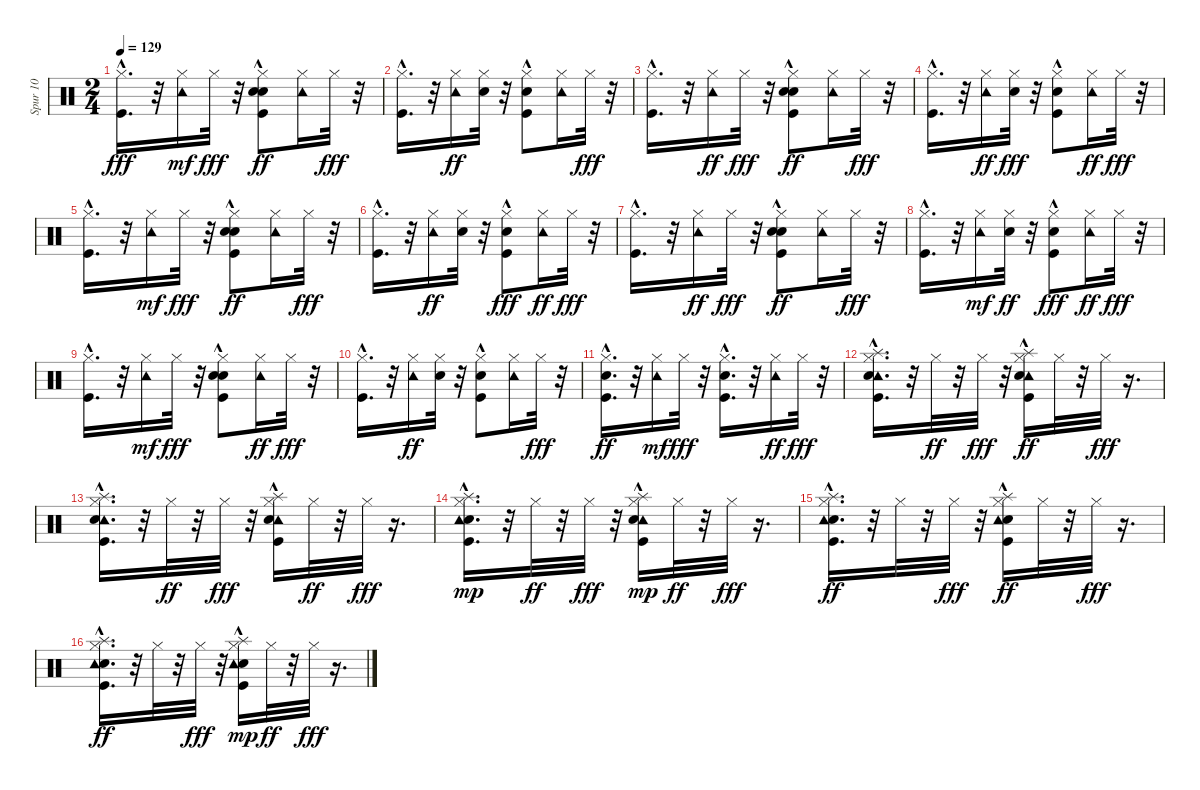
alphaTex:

\track ("Spur 10" "Spur 10") {instrument percussion}
\staff {score}
\articulation defaults
\ts (2 4)
\tempo 129
\clef neutral
\ks c
("Kick (hit)"{hac} "Hi-Hat (closed)").16{d dy fff} r.32 ("Hi-Hat (closed)" "Tambourine (hit)").16{dy mf} "Hi-Hat (closed)".32{dy fff} r.32 ("Hi-Hat (closed)" "Kick (hit)"{hac} "Hand Clap (hit)" "Snare (hit) 2").8{dy ff} ("Tambourine (hit)" "Hi-Hat (closed)").16 "Hi-Hat (closed)".32{dy fff} r.32 |
("Kick (hit)"{hac} "Hi-Hat (closed)").16{d} r.32 ("Tambourine (hit)" "Hi-Hat (closed)").16{dy ff} ("Hi-Hat (closed)" "Snare (hit) 2").32 r.32 ("Kick (hit)"{hac} "Hi-Hat (closed)" "Hand Clap (hit)").8 ("Tambourine (hit)" "Hi-Hat (closed)").16 "Hi-Hat (closed)".32{dy fff} r.32 |
("Kick (hit)"{hac} "Hi-Hat (closed)").16{d} r.32 ("Tambourine (hit)" "Hi-Hat (closed)").16{dy ff} "Hi-Hat (closed)".32{dy fff} r.32 ("Hi-Hat (closed)" "Snare (hit) 2" "Kick (hit)"{hac} "Hand Clap (hit)"{hac}).8{dy ff} ("Tambourine (hit)" "Hi-Hat (closed)").16 "Hi-Hat (closed)".32{dy fff} r.32 |
("Kick (hit)"{hac} "Hi-Hat (closed)").16{d} r.32 ("Tambourine (hit)" "Hi-Hat (closed)").16{dy ff} ("Snare (hit) 2" "Hi-Hat (closed)").32{dy fff} r.32 ("Hi-Hat (closed)" "Hand Clap (hit)" "Kick (hit)"{hac}).8 ("Hi-Hat (closed)" "Tambourine (hit)").16{dy ff} "Hi-Hat (closed)".32{dy fff} r.32 |
("Kick (hit)"{hac} "Hi-Hat (closed)").16{d} r.32 ("Hi-Hat (closed)" "Tambourine (hit)").16{dy mf} "Hi-Hat (closed)".32{dy fff} r.32 ("Kick (hit)"{hac} "Snare (hit) 2" "Hand Clap (hit)"{hac} "Hi-Hat (closed)").8{dy ff} ("Hi-Hat (closed)" "Tambourine (hit)").16 "Hi-Hat (closed)".32{dy fff} r.32 |
("Hi-Hat (closed)" "Kick (hit)"{hac}).16{d} r.32 ("Tambourine (hit)" "Hi-Hat (closed)").16{dy ff} ("Hi-Hat (closed)" "Snare (hit) 2").32 r.32 ("Hand Clap (hit)"{hac} "Kick (hit)"{hac} "Hi-Hat (closed)").8{dy fff} ("Hi-Hat (closed)" "Tambourine (hit)").16{dy ff} "Hi-Hat (closed)".32{dy fff} r.32 |
("Hi-Hat (closed)" "Kick (hit)"{hac}).16{d} r.32 ("Tambourine (hit)" "Hi-Hat (closed)").16{dy ff} "Hi-Hat (closed)".32{dy fff} r.32 ("Hi-Hat (closed)" "Hand Clap (hit)"{hac} "Kick (hit)"{hac} "Snare (hit) 2").8{dy ff} ("Tambourine (hit)" "Hi-Hat (closed)").16 "Hi-Hat (closed)".32{dy fff} r.32 |
("Kick (hit)"{hac} "Hi-Hat (closed)").16{d} r.32 ("Hi-Hat (closed)" "Tambourine (hit)").16{dy mf} ("Hi-Hat (closed)" "Snare (hit) 2").32{dy ff} r.32 ("Hand Clap (hit)"{hac} "Kick (hit)"{hac} "Hi-Hat (closed)").8{dy fff} ("Tambourine (hit)" "Hi-Hat (closed)").16{dy ff} "Hi-Hat (closed)".32{dy fff} r.32 |
("Hi-Hat (closed)" "Kick (hit)"{hac}).16{d} r.32 ("Hi-Hat (closed)" "Tambourine (hit)").16{dy mf} "Hi-Hat (closed)".32{dy fff} r.32 ("Hand Clap (hit)" "Snare (hit) 2" "Hi-Hat (closed)" "Kick (hit)"{hac}).8 ("Hi-Hat (closed)" "Tambourine (hit)").16{dy ff} "Hi-Hat (closed)".32{dy fff} r.32 |
("Hi-Hat (closed)" "Kick (hit)"{hac}).16{d} r.32 ("Tambourine (hit)" "Hi-Hat (closed)").16{dy ff} ("Hi-Hat (closed)" "Snare (hit) 2").32 r.32 ("Kick (hit)"{hac} "Hand Clap (hit)" "Hi-Hat (closed)").8 ("Tambourine (hit)" "Hi-Hat (closed)").16 "Hi-Hat (closed)".32{dy fff} r.32 |
("Kick (hit)"{hac} "Hi-Hat (closed)" "Hand Clap (hit)").16{d dy ff} r.32 ("Hi-Hat (closed)" "Tambourine (hit)").16{dy mf} "Hi-Hat (closed)".32{dy fff} r.32 ("Hi-Hat (closed)" "Snare (hit) 2" "Kick (hit)"{hac}).16{d} r.32 ("Tambourine (hit)" "Hi-Hat (closed)").16{dy ff} "Hi-Hat (closed)".32{dy fff} r.32 |
("Hi-Hat (closed)" "Splash (hit)" "Tambourine (hit)"{hac} "Snare (hit) 2"{hac} "Kick (hit)"{hac}).16{d} r.32 "Hi-Hat (closed)".32{dy ff} r.32 "Hi-Hat (closed)".32{dy fff} r.32 ("Tambourine (hit)"{hac} "Splash (hit)" "Kick (hit)"{hac} "Hi-Hat (closed)" "Snare (hit) 2"{hac}).16{dy ff} "Hi-Hat (closed)".32 r.32 "Hi-Hat (closed)".32{dy fff} r.16{d} |
("Tambourine (hit)"{hac} "Hi-Hat (closed)" "Splash (hit)" "Snare (hit) 2"{hac} "Kick (hit)"{hac}).16{d} r.32 "Hi-Hat (closed)".32{dy ff} r.32 "Hi-Hat (closed)".32{dy fff} r.32 ("Hi-Hat (closed)" "Tambourine (hit)"{hac} "Splash (hit)" "Snare (hit) 2"{hac} "Kick (hit)"{hac}).16 "Hi-Hat (closed)".32{dy ff} r.32 "Hi-Hat (closed)".32{dy fff} r.16{d} |
("Snare (hit) 2"{hac} "Kick (hit)"{hac} "Tambourine (hit)"{hac} "Splash (hit)" "Hi-Hat (closed)").16{d dy mp} r.32 "Hi-Hat (closed)".32{dy ff} r.32 "Hi-Hat (closed)".32{dy fff} r.32 ("Kick (hit)"{hac} "Tambourine (hit)"{hac} "Snare (hit) 2"{hac} "Hi-Hat (closed)" "Splash (hit)").16{dy mp} "Hi-Hat (closed)".32{dy ff} r.32 "Hi-Hat (closed)".32{dy fff} r.16{d} |
("Kick (hit)"{hac} "Snare (hit) 2"{hac} "Splash (hit)" "Hi-Hat (closed)" "Tambourine (hit)"{hac}).16{d dy ff} r.32 "Hi-Hat (closed)".32 r.32 "Hi-Hat (closed)".32{dy fff} r.32 ("Splash (hit)" "Snare (hit) 2"{hac} "Kick (hit)"{hac} "Hi-Hat (closed)" "Tambourine (hit)"{hac}).16{dy ff} "Hi-Hat (closed)".32 r.32 "Hi-Hat (closed)".32{dy fff} r.16{d} |
("Kick (hit)"{hac} "Splash (hit)" "Snare (hit) 2"{hac} "Hi-Hat (closed)" "Tambourine (hit)"{hac}).16{d dy ff} r.32 "Hi-Hat (closed)".32 r.32 "Hi-Hat (closed)".32{dy fff} r.32 ("Hi-Hat (closed)" "Snare (hit) 2"{hac} "Tambourine (hit)"{hac} "Kick (hit)"{hac} "Splash (hit)").16{dy mp} "Hi-Hat (closed)".32{dy ff} r.32 "Hi-Hat (closed)".32{dy fff} r.16{d}
